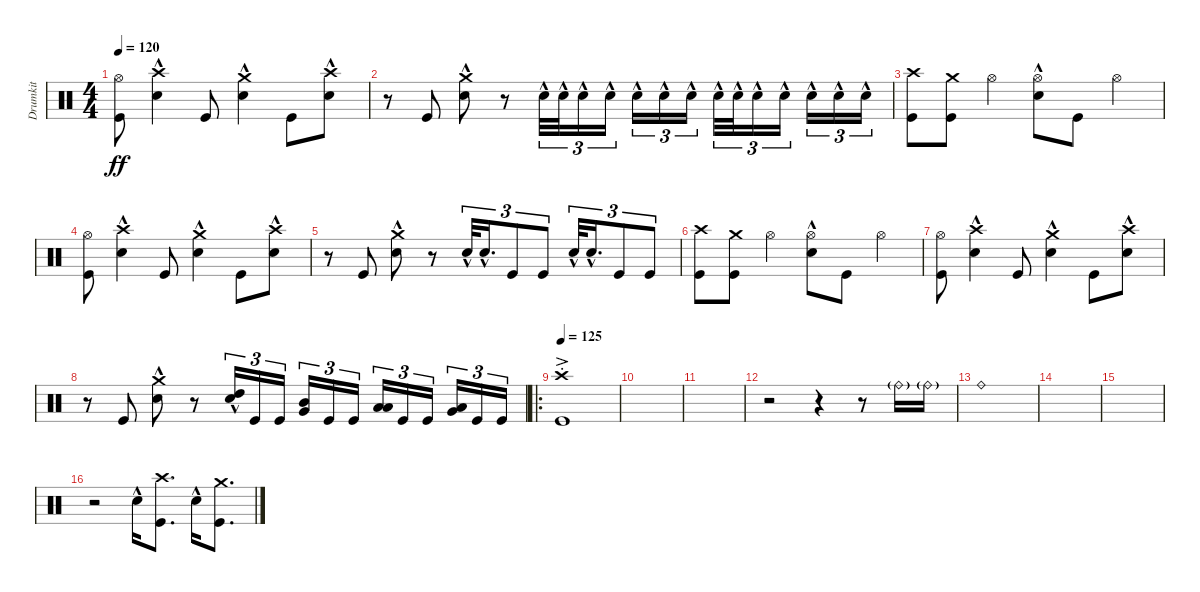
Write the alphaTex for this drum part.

\track ("Drumkit" "Drumkit") {instrument percussion}
\staff {score}
\articulation defaults
\ts (4 4)
\tempo 120
\clef neutral
\ks c
("Kick (hit)" "Hi-Hat (open)").8{dy ff} ("Snare (hit) 2"{hac} "Crash high (hit)").4 "Kick (hit)".8 ("Snare (hit) 2"{hac} "Crash medium (hit)").4 "Kick (hit)".8 ("Snare (hit) 2"{hac} "Crash high (hit)").8 |
r.8 "Kick (hit)".8 ("Snare (hit) 2"{hac} "Crash medium (hit)").8 r.8 "Snare (hit) 2"{hac}.32{tu (3 2)} "Snare (hit) 2"{hac}.32{tu (3 2)} "Snare (hit) 2"{hac}.16{tu (3 2)} "Snare (hit) 2"{hac}.16{tu (3 2) beam splitsecondary} "Snare (hit) 2"{hac}.16{tu (3 2)} "Snare (hit) 2"{hac}.16{tu (3 2)} "Snare (hit) 2"{hac}.16{tu (3 2)} "Snare (hit) 2"{hac}.32{tu (3 2)} "Snare (hit) 2"{hac}.32{tu (3 2)} "Snare (hit) 2"{hac}.16{tu (3 2)} "Snare (hit) 2"{hac}.16{tu (3 2) beam splitsecondary} "Snare (hit) 2"{hac}.16{tu (3 2)} "Snare (hit) 2"{hac}.16{tu (3 2)} "Snare (hit) 2"{hac}.16{tu (3 2)} |
("Kick (hit)" "Crash high (hit)").8 ("Kick (hit)" "Crash medium (hit)").8 "Hi-Hat (open)".4 ("Snare (hit) 2"{hac} "Hi-Hat (open)").8 "Kick (hit)".8 "Hi-Hat (open)".4 |
("Kick (hit)" "Hi-Hat (open)").8 ("Snare (hit) 2"{hac} "Crash high (hit)").4 "Kick (hit)".8 ("Snare (hit) 2"{hac} "Crash medium (hit)").4 "Kick (hit)".8 ("Snare (hit) 2"{hac} "Crash high (hit)").8 |
r.8 "Kick (hit)".8 ("Snare (hit) 2"{hac} "Crash medium (hit)").8 r.8 "Snare (hit) 2"{hac}.32{tu (3 2)} "Snare (hit) 2"{hac}.16{d tu (3 2)} "Kick (hit)".8{tu (3 2)} "Kick (hit)".8{tu (3 2)} "Snare (hit) 2"{hac}.32{tu (3 2)} "Snare (hit) 2"{hac}.16{d tu (3 2)} "Kick (hit)".8{tu (3 2)} "Kick (hit)".8{tu (3 2)} |
("Kick (hit)" "Crash high (hit)").8 ("Kick (hit)" "Crash medium (hit)").8 "Hi-Hat (open)".4 ("Snare (hit) 2"{hac} "Hi-Hat (open)").8 "Kick (hit)".8 "Hi-Hat (open)".4 |
("Kick (hit)" "Hi-Hat (open)").8 ("Snare (hit) 2"{hac} "Crash high (hit)").4 "Kick (hit)".8 ("Snare (hit) 2"{hac} "Crash medium (hit)").4 "Kick (hit)".8 ("Snare (hit) 2"{hac} "Crash high (hit)").8 |
r.8 "Kick (hit)".8 ("Snare (hit) 2"{hac} "Crash medium (hit)").8 r.8 ("Snare (hit) 2"{hac} "High Tom (hit)").16{tu (3 2)} "Kick (hit)".16{tu (3 2)} "Kick (hit)".16{tu (3 2) beam splitsecondary} ("Mid Tom (hit)" "Very Low Tom (hit)").16{tu (3 2)} "Kick (hit)".16{tu (3 2)} "Kick (hit)".16{tu (3 2)} ("Low Tom (hit)" "Low Floor Tom (hit)").16{tu (3 2)} "Kick (hit)".16{tu (3 2)} "Kick (hit)".16{tu (3 2) beam splitsecondary} ("Very Low Tom (hit)" "Low Floor Tom (hit)").16{tu (3 2)} "Kick (hit)".16{tu (3 2)} "Kick (hit)".16{tu (3 2)} |
\ro
\tempo 125
("Kick (hit)" "Crash high (hit)"{ac st}).1 |
|
|
r.2 r.4 r.8 "Ride (bell)"{g}.16 "Ride (bell)"{g}.16 |
"Ride (bell)".1 |
|
|
r.2 "Snare (hit) 2"{hac}.16 ("Kick (hit)" "Crash high (hit)").8{d} "Snare (hit) 2"{hac}.16 ("Kick (hit)" "Crash medium (hit)").8{d}
